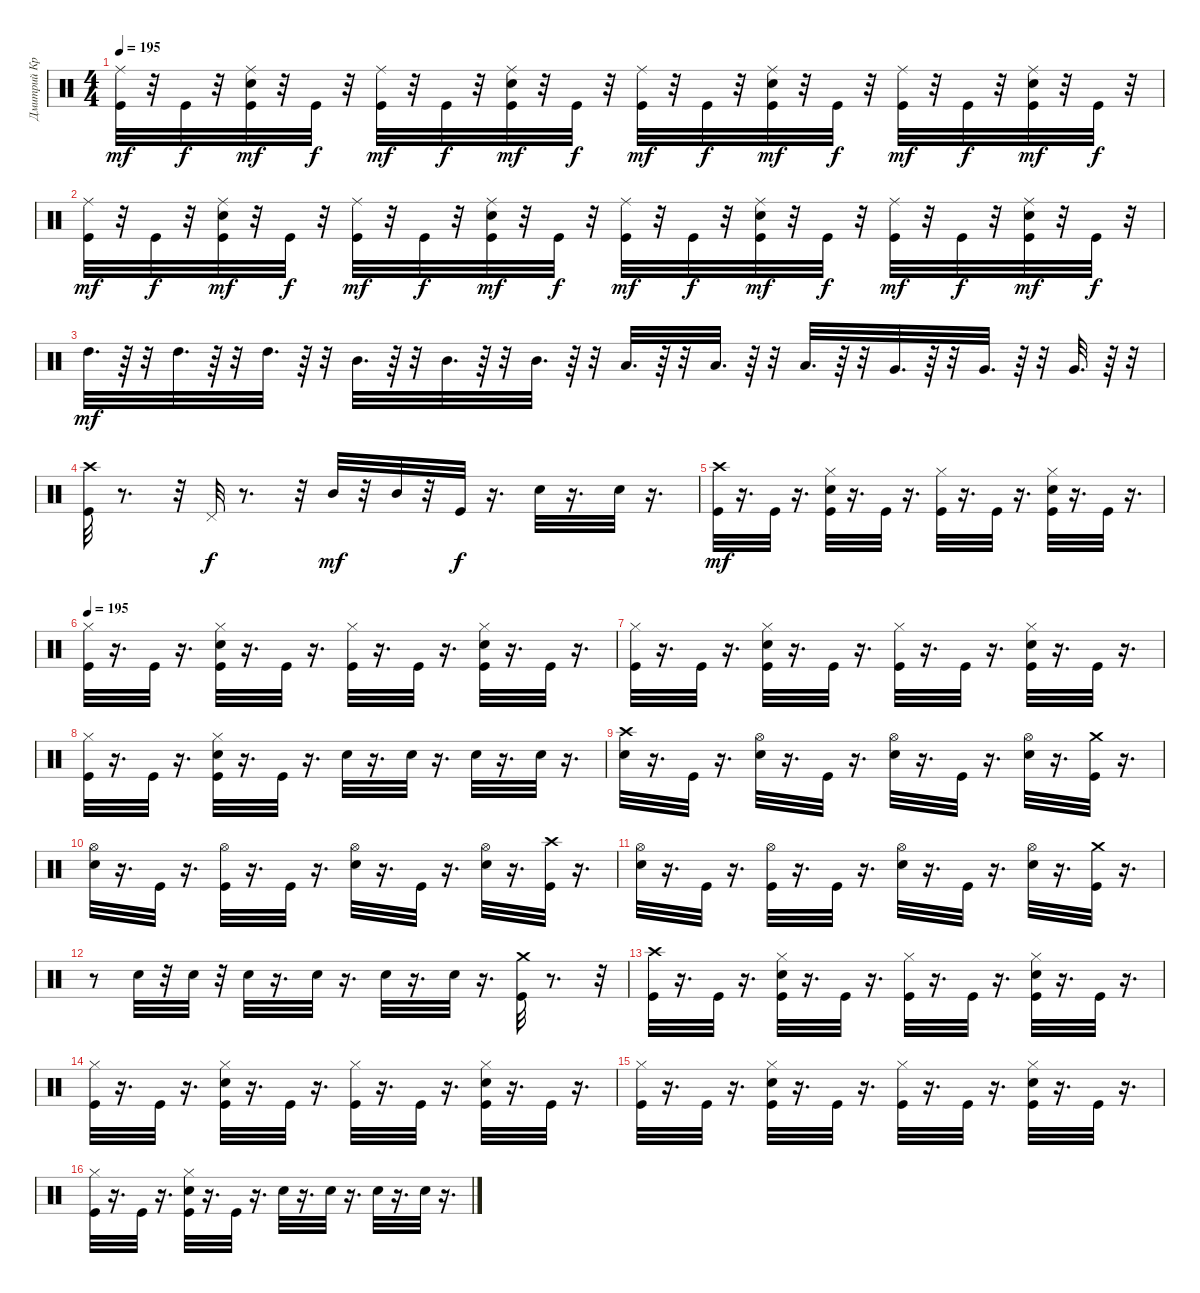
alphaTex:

\track ("Дмитрий Кривенков" "Дмитрий Кр") {instrument percussion}
\staff {score}
\articulation defaults
\ts (4 4)
\tempo 195
\clef neutral
\ks c
("Ride (middle)" "Kick (hit)").32{dy mf} r.32 "Kick (hit)".32{dy f} r.32 ("Electric Snare (hit)" "Ride (middle)" "Kick (hit)").32{dy mf} r.32 "Kick (hit)".32{dy f} r.32 ("Ride (middle)" "Kick (hit)").32{dy mf} r.32 "Kick (hit)".32{dy f} r.32 ("Ride (middle)" "Kick (hit)" "Electric Snare (hit)").32{dy mf} r.32 "Kick (hit)".32{dy f} r.32 ("Ride (middle)" "Kick (hit)").32{dy mf} r.32 "Kick (hit)".32{dy f} r.32 ("Ride (middle)" "Kick (hit)" "Electric Snare (hit)").32{dy mf} r.32 "Kick (hit)".32{dy f} r.32 ("Ride (middle)" "Kick (hit)").32{dy mf} r.32 "Kick (hit)".32{dy f} r.32 ("Electric Snare (hit)" "Ride (middle)" "Kick (hit)").32{dy mf} r.32 "Kick (hit)".32{dy f} r.32 |
("Ride (middle)" "Kick (hit)").32{dy mf} r.32 "Kick (hit)".32{dy f} r.32 ("Electric Snare (hit)" "Ride (middle)" "Kick (hit)").32{dy mf} r.32 "Kick (hit)".32{dy f} r.32 ("Ride (middle)" "Kick (hit)").32{dy mf} r.32 "Kick (hit)".32{dy f} r.32 ("Ride (middle)" "Kick (hit)" "Electric Snare (hit)").32{dy mf} r.32 "Kick (hit)".32{dy f} r.32 ("Ride (middle)" "Kick (hit)").32{dy mf} r.32 "Kick (hit)".32{dy f} r.32 ("Ride (middle)" "Kick (hit)" "Electric Snare (hit)").32{dy mf} r.32 "Kick (hit)".32{dy f} r.32 ("Ride (middle)" "Kick (hit)").32{dy mf} r.32 "Kick (hit)".32{dy f} r.32 ("Electric Snare (hit)" "Ride (middle)" "Kick (hit)").32{dy mf} r.32 "Kick (hit)".32{dy f} r.32 |
"High Tom (hit)".32{d dy mf} r.64 r.32 "High Tom (hit)".32{d} r.64 r.32 "High Tom (hit)".32{d} r.64 r.32 "Mid Tom (hit)".32{d} r.64 r.32 "Mid Tom (hit)".32{d} r.64 r.32 "Mid Tom (hit)".32{d} r.64 r.32 "Low Tom (hit)".32{d} r.64 r.32 "Low Tom (hit)".32{d} r.64 r.32 "Low Tom (hit)".32{d} r.64 r.32 "Very Low Tom (hit)".32{d} r.64 r.32 "Very Low Tom (hit)".32{d} r.64 r.32 "Very Low Tom (hit)".32{d} r.64 r.32 |
("Crash high (hit)" "Kick (hit)").32 r.8{d} r.32 "Pedal Hi-Hat (hit)".32{dy f} r.8{d} r.32 "Mid Tom (hit)".32{dy mf} r.32 "Mid Tom (hit)".32 r.32 "Kick (hit)".32{dy f} r.16{d} "Electric Snare (hit)".32 r.16{d} "Electric Snare (hit)".32 r.16{d} |
("Crash high (hit)" "Kick (hit)").32{dy mf} r.16{d} "Kick (hit)".32 r.16{d} ("Electric Snare (hit)" "Kick (hit)" "Hi-Hat (closed)").32 r.16{d} "Kick (hit)".32 r.16{d} ("Kick (hit)" "Hi-Hat (closed)").32 r.16{d} "Kick (hit)".32 r.16{d} ("Electric Snare (hit)" "Kick (hit)" "Hi-Hat (closed)").32 r.16{d} "Kick (hit)".32 r.16{d} |
\tempo 195
("Hi-Hat (closed)" "Kick (hit)").32 r.16{d} "Kick (hit)".32 r.16{d} ("Electric Snare (hit)" "Kick (hit)" "Hi-Hat (closed)").32 r.16{d} "Kick (hit)".32 r.16{d} ("Kick (hit)" "Hi-Hat (closed)").32 r.16{d} "Kick (hit)".32 r.16{d} ("Electric Snare (hit)" "Kick (hit)" "Hi-Hat (closed)").32 r.16{d} "Kick (hit)".32 r.16{d} |
("Hi-Hat (closed)" "Kick (hit)").32 r.16{d} "Kick (hit)".32 r.16{d} ("Electric Snare (hit)" "Kick (hit)" "Hi-Hat (closed)").32 r.16{d} "Kick (hit)".32 r.16{d} ("Kick (hit)" "Hi-Hat (closed)").32 r.16{d} "Kick (hit)".32 r.16{d} ("Electric Snare (hit)" "Kick (hit)" "Hi-Hat (closed)").32 r.16{d} "Kick (hit)".32 r.16{d} |
("Hi-Hat (closed)" "Kick (hit)").32 r.16{d} "Kick (hit)".32 r.16{d} ("Electric Snare (hit)" "Kick (hit)" "Hi-Hat (closed)").32 r.16{d} "Kick (hit)".32 r.16{d} "Electric Snare (hit)".32 r.16{d} "Electric Snare (hit)".32 r.16{d} "Electric Snare (hit)".32 r.16{d} "Electric Snare (hit)".32 r.16{d} |
("Crash high (hit)" "Electric Snare (hit)").32 r.16{d} "Kick (hit)".32 r.16{d} ("Electric Snare (hit)" "Hi-Hat (open)").32 r.16{d} "Kick (hit)".32 r.16{d} ("Electric Snare (hit)" "Hi-Hat (open)").32 r.16{d} "Kick (hit)".32 r.16{d} ("Hi-Hat (open)" "Electric Snare (hit)").32 r.16{d} ("Kick (hit)" "Crash medium (hit)").32 r.16{d} |
("Hi-Hat (open)" "Electric Snare (hit)").32 r.16{d} "Kick (hit)".32 r.16{d} ("Hi-Hat (open)" "Kick (hit)").32 r.16{d} "Kick (hit)".32 r.16{d} ("Hi-Hat (open)" "Electric Snare (hit)").32 r.16{d} "Kick (hit)".32 r.16{d} ("Electric Snare (hit)" "Hi-Hat (open)").32 r.16{d} ("Crash high (hit)" "Kick (hit)").32 r.16{d} |
("Electric Snare (hit)" "Hi-Hat (open)").32 r.16{d} "Kick (hit)".32 r.16{d} ("Kick (hit)" "Hi-Hat (open)").32 r.16{d} "Kick (hit)".32 r.16{d} ("Electric Snare (hit)" "Hi-Hat (open)").32 r.16{d} "Kick (hit)".32 r.16{d} ("Electric Snare (hit)" "Hi-Hat (open)").32 r.16{d} ("Kick (hit)" "Crash medium (hit)").32 r.16{d} |
r.8 "Electric Snare (hit)".32 r.32 "Electric Snare (hit)".32 r.32 "Electric Snare (hit)".32 r.16{d} "Electric Snare (hit)".32 r.16{d} "Electric Snare (hit)".32 r.16{d} "Electric Snare (hit)".32 r.16{d} ("Kick (hit)" "Crash medium (hit)").32 r.8{d} r.32 |
("Crash high (hit)" "Kick (hit)").32 r.16{d} "Kick (hit)".32 r.16{d} ("Electric Snare (hit)" "Kick (hit)" "Hi-Hat (closed)").32 r.16{d} "Kick (hit)".32 r.16{d} ("Kick (hit)" "Hi-Hat (closed)").32 r.16{d} "Kick (hit)".32 r.16{d} ("Electric Snare (hit)" "Kick (hit)" "Hi-Hat (closed)").32 r.16{d} "Kick (hit)".32 r.16{d} |
("Hi-Hat (closed)" "Kick (hit)").32 r.16{d} "Kick (hit)".32 r.16{d} ("Electric Snare (hit)" "Kick (hit)" "Hi-Hat (closed)").32 r.16{d} "Kick (hit)".32 r.16{d} ("Kick (hit)" "Hi-Hat (closed)").32 r.16{d} "Kick (hit)".32 r.16{d} ("Electric Snare (hit)" "Kick (hit)" "Hi-Hat (closed)").32 r.16{d} "Kick (hit)".32 r.16{d} |
("Hi-Hat (closed)" "Kick (hit)").32 r.16{d} "Kick (hit)".32 r.16{d} ("Electric Snare (hit)" "Kick (hit)" "Hi-Hat (closed)").32 r.16{d} "Kick (hit)".32 r.16{d} ("Kick (hit)" "Hi-Hat (closed)").32 r.16{d} "Kick (hit)".32 r.16{d} ("Electric Snare (hit)" "Kick (hit)" "Hi-Hat (closed)").32 r.16{d} "Kick (hit)".32 r.16{d} |
("Hi-Hat (closed)" "Kick (hit)").32 r.16{d} "Kick (hit)".32 r.16{d} ("Electric Snare (hit)" "Kick (hit)" "Hi-Hat (closed)").32 r.16{d} "Kick (hit)".32 r.16{d} "Electric Snare (hit)".32 r.16{d} "Electric Snare (hit)".32 r.16{d} "Electric Snare (hit)".32 r.16{d} "Electric Snare (hit)".32 r.16{d}
